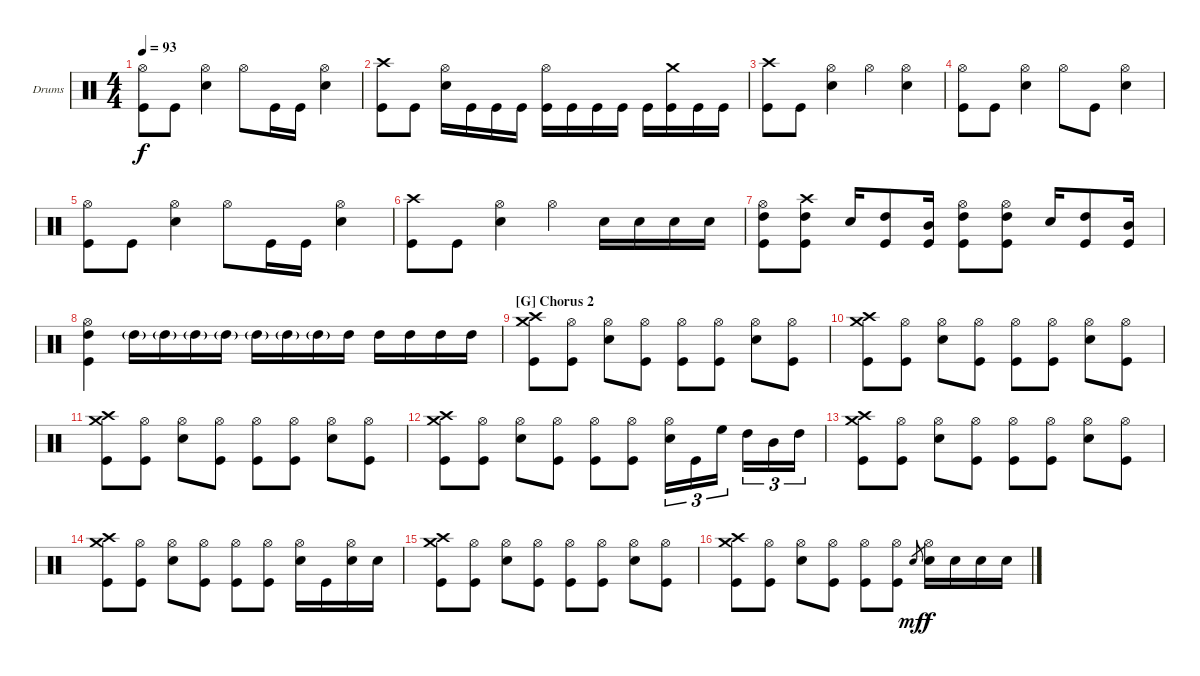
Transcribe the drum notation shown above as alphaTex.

\bracketExtendMode groupsimilarinstruments
\firstSystemTrackNameOrientation horizontal
\otherSystemsTrackNameOrientation horizontal
\track ("Drums (Tony Palermo)" "Drums") {instrument percussion}
\staff {score}
\articulation defaults
\ts (4 4)
\tempo 93
\clef neutral
\ks c
("Hi-Hat (open)" "Kick (hit)").8{dy f} "Kick (hit)".8 ("Hi-Hat (open)" "Snare (hit) 2").4 "Hi-Hat (open)".8 "Kick (hit)".16 "Kick (hit)".16 ("Hi-Hat (open)" "Snare (hit) 2").4 |
("Crash high (hit)" "Kick (hit)").8 "Kick (hit)".8 ("Hi-Hat (open)" "Snare (hit) 2").16 "Kick (hit)".16 "Kick (hit)".16 "Kick (hit)".16 ("Hi-Hat (open)" "Kick (hit)").16 "Kick (hit)".16 "Kick (hit)".16 "Kick (hit)".16 "Kick (hit)".16 ("Crash medium (hit)" "Kick (hit)").16 "Kick (hit)".16 "Kick (hit)".16 |
("Crash high (hit)" "Kick (hit)").8 "Kick (hit)".8 ("Hi-Hat (open)" "Snare (hit) 2").4 "Hi-Hat (open)".4 ("Hi-Hat (open)" "Snare (hit) 2").4 |
("Hi-Hat (open)" "Kick (hit)").8 "Kick (hit)".8 ("Hi-Hat (open)" "Snare (hit) 2").4 "Hi-Hat (open)".8 "Kick (hit)".8 ("Hi-Hat (open)" "Snare (hit) 2").4 |
("Hi-Hat (open)" "Kick (hit)").8 "Kick (hit)".8 ("Hi-Hat (open)" "Snare (hit) 2").4 "Hi-Hat (open)".8 "Kick (hit)".16 "Kick (hit)".16 ("Hi-Hat (open)" "Snare (hit) 2").4 |
("Crash high (hit)" "Kick (hit)").8 "Kick (hit)".8 ("Hi-Hat (open)" "Snare (hit) 2").4 "Hi-Hat (open)".4 "Snare (hit) 2".16 "Snare (hit) 2".16 "Snare (hit) 2".16 "Snare (hit) 2".16 |
("Hi-Hat (open)" "High Tom (hit)" "Kick (hit)").8 ("Crash high (hit)" "High Tom (hit)" "Kick (hit)").8 "Snare (hit) 2".16 ("High Tom (hit)" "Kick (hit)").8 ("Mid Tom (hit)" "Kick (hit)").16 ("Hi-Hat (open)" "High Tom (hit)" "Kick (hit)").8 ("Hi-Hat (open)" "High Tom (hit)" "Kick (hit)").8 "Snare (hit) 2".16 ("High Tom (hit)" "Kick (hit)").8 ("Mid Tom (hit)" "Kick (hit)").16 |
("Hi-Hat (open)" "High Tom (hit)" "Kick (hit)").4 "High Tom (hit)"{g}.16 "High Tom (hit)"{g}.16 "High Tom (hit)"{g}.16 "High Tom (hit)"{g}.16 "High Tom (hit)"{g}.16 "High Tom (hit)"{g}.16 "High Tom (hit)"{g}.16 "High Tom (hit)".16 "High Tom (hit)".16 "High Tom (hit)".16 "High Tom (hit)".16 "High Tom (hit)".16 |
\section ("G" "Chorus 2")
("Crash medium (hit)" "Crash high (hit)" "Kick (hit)").8 ("Hi-Hat (open)" "Kick (hit)").8 ("Hi-Hat (open)" "Snare (hit) 2").8 ("Hi-Hat (open)" "Kick (hit)").8 ("Hi-Hat (open)" "Kick (hit)").8 ("Hi-Hat (open)" "Kick (hit)").8 ("Hi-Hat (open)" "Snare (hit) 2").8 ("Hi-Hat (open)" "Kick (hit)").8 |
("Crash medium (hit)" "Crash high (hit)" "Kick (hit)").8 ("Hi-Hat (open)" "Kick (hit)").8 ("Hi-Hat (open)" "Snare (hit) 2").8 ("Hi-Hat (open)" "Kick (hit)").8 ("Hi-Hat (open)" "Kick (hit)").8 ("Hi-Hat (open)" "Kick (hit)").8 ("Hi-Hat (open)" "Snare (hit) 2").8 ("Hi-Hat (open)" "Kick (hit)").8 |
("Crash medium (hit)" "Crash high (hit)" "Kick (hit)").8 ("Hi-Hat (open)" "Kick (hit)").8 ("Hi-Hat (open)" "Snare (hit) 2").8 ("Hi-Hat (open)" "Kick (hit)").8 ("Hi-Hat (open)" "Kick (hit)").8 ("Hi-Hat (open)" "Kick (hit)").8 ("Hi-Hat (open)" "Snare (hit) 2").8 ("Hi-Hat (open)" "Kick (hit)").8 |
("Crash medium (hit)" "Crash high (hit)" "Kick (hit)").8 ("Hi-Hat (open)" "Kick (hit)").8 ("Hi-Hat (open)" "Snare (hit) 2").8 ("Hi-Hat (open)" "Kick (hit)").8 ("Hi-Hat (open)" "Kick (hit)").8 ("Hi-Hat (open)" "Kick (hit)").8 ("Hi-Hat (open)" "Snare (hit) 2").16{tu (3 2)} "Kick (hit)".16{tu (3 2)} "High Floor Tom (hit)".16{tu (3 2)} "High Tom (hit)".16{tu (3 2)} "Mid Tom (hit)".16{tu (3 2)} "High Tom (hit)".16{tu (3 2)} |
("Crash medium (hit)" "Crash high (hit)" "Kick (hit)").8 ("Hi-Hat (open)" "Kick (hit)").8 ("Hi-Hat (open)" "Snare (hit) 2").8 ("Hi-Hat (open)" "Kick (hit)").8 ("Hi-Hat (open)" "Kick (hit)").8 ("Hi-Hat (open)" "Kick (hit)").8 ("Hi-Hat (open)" "Snare (hit) 2").8 ("Hi-Hat (open)" "Kick (hit)").8 |
("Crash medium (hit)" "Crash high (hit)" "Kick (hit)").8 ("Hi-Hat (open)" "Kick (hit)").8 ("Hi-Hat (open)" "Snare (hit) 2").8 ("Hi-Hat (open)" "Kick (hit)").8 ("Hi-Hat (open)" "Kick (hit)").8 ("Hi-Hat (open)" "Kick (hit)").8 ("Hi-Hat (open)" "Snare (hit) 2").16 "Kick (hit)".16 ("Hi-Hat (open)" "Snare (hit) 2").16 "Snare (hit) 2".16 |
("Crash medium (hit)" "Crash high (hit)" "Kick (hit)").8 ("Hi-Hat (open)" "Kick (hit)").8 ("Hi-Hat (open)" "Snare (hit) 2").8 ("Hi-Hat (open)" "Kick (hit)").8 ("Hi-Hat (open)" "Kick (hit)").8 ("Hi-Hat (open)" "Kick (hit)").8 ("Hi-Hat (open)" "Snare (hit) 2").8 ("Hi-Hat (open)" "Kick (hit)").8 |
("Crash medium (hit)" "Crash high (hit)" "Kick (hit)").8 ("Hi-Hat (open)" "Kick (hit)").8 ("Hi-Hat (open)" "Snare (hit) 2").8 ("Hi-Hat (open)" "Kick (hit)").8 ("Hi-Hat (open)" "Kick (hit)").8 ("Hi-Hat (open)" "Kick (hit)").8 "Snare (hit) 2".8{gr dy mf} ("Hi-Hat (open)" "Snare (hit) 2").16{dy f} "Snare (hit) 2".16 "Snare (hit) 2".16 "Snare (hit) 2".16
